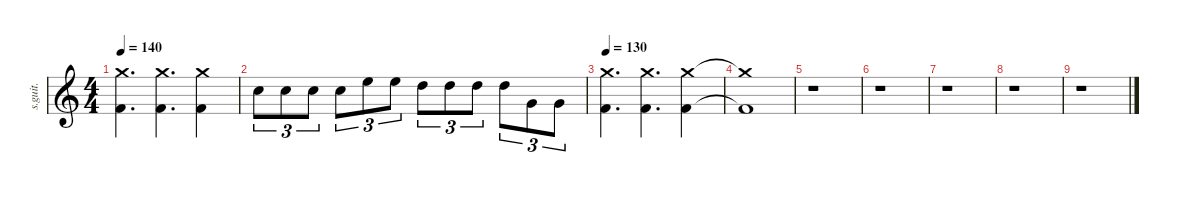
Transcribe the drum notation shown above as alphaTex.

\defaultSystemsLayout 4
\hideDynamics
\bracketExtendMode nobrackets
\track ("Abe Cunningham" "s.guit.") {instrument percussion}
\staff {score}
\articulation defaults
\ts (4 4)
\tempo 140
\clef g2
\ks c
("Crash medium (hit)" "Kick (hit) 2").4{d lyrics (0 "") lyrics (1 "") lyrics (2 "") lyrics (3 "") lyrics (4 "") dy fff} ("Crash medium (hit)" "Kick (hit) 2").4{d lyrics (0 "") lyrics (1 "") lyrics (2 "") lyrics (3 "") lyrics (4 "")} ("Crash medium (hit)" "Kick (hit) 2").4{lyrics (0 "") lyrics (1 "") lyrics (2 "") lyrics (3 "") lyrics (4 "")} |
"Snare (hit) 2".8{tu (3 2) lyrics (0 "") lyrics (1 "") lyrics (2 "") lyrics (3 "") lyrics (4 "")} "Snare (hit) 2".8{tu (3 2) lyrics (0 "") lyrics (1 "") lyrics (2 "") lyrics (3 "") lyrics (4 "")} "Snare (hit) 2".8{tu (3 2) lyrics (0 "") lyrics (1 "") lyrics (2 "") lyrics (3 "") lyrics (4 "")} "Snare (hit) 2".8{tu (3 2) lyrics (0 "") lyrics (1 "") lyrics (2 "") lyrics (3 "") lyrics (4 "")} "High Floor Tom (hit)".8{tu (3 2) lyrics (0 "") lyrics (1 "") lyrics (2 "") lyrics (3 "") lyrics (4 "")} "High Floor Tom (hit)".8{tu (3 2) lyrics (0 "") lyrics (1 "") lyrics (2 "") lyrics (3 "") lyrics (4 "")} "High Tom (hit)".8{tu (3 2) lyrics (0 "") lyrics (1 "") lyrics (2 "") lyrics (3 "") lyrics (4 "")} "High Tom (hit)".8{tu (3 2) lyrics (0 "") lyrics (1 "") lyrics (2 "") lyrics (3 "") lyrics (4 "")} "High Tom (hit)".8{tu (3 2) lyrics (0 "") lyrics (1 "") lyrics (2 "") lyrics (3 "") lyrics (4 "")} "High Tom (hit)".8{tu (3 2) lyrics (0 "") lyrics (1 "") lyrics (2 "") lyrics (3 "") lyrics (4 "")} "Very Low Tom (hit)".8{tu (3 2) lyrics (0 "") lyrics (1 "") lyrics (2 "") lyrics (3 "") lyrics (4 "")} "Very Low Tom (hit)".8{tu (3 2) lyrics (0 "") lyrics (1 "") lyrics (2 "") lyrics (3 "") lyrics (4 "")} |
\tempo 130
("Crash medium (hit)" "Kick (hit) 2").4{d lyrics (0 "") lyrics (1 "") lyrics (2 "") lyrics (3 "") lyrics (4 "")} ("Crash medium (hit)" "Kick (hit) 2").4{d lyrics (0 "") lyrics (1 "") lyrics (2 "") lyrics (3 "") lyrics (4 "")} ("Crash medium (hit)" "Kick (hit) 2").4{lyrics (0 "") lyrics (1 "") lyrics (2 "") lyrics (3 "") lyrics (4 "")} |
("Crash medium (hit)"{t} "Kick (hit) 2"{t}).1{lyrics (0 "") lyrics (1 "") lyrics (2 "") lyrics (3 "") lyrics (4 "")} |
r.1 |
r.1 |
r.1 |
r.1 |
r.1
